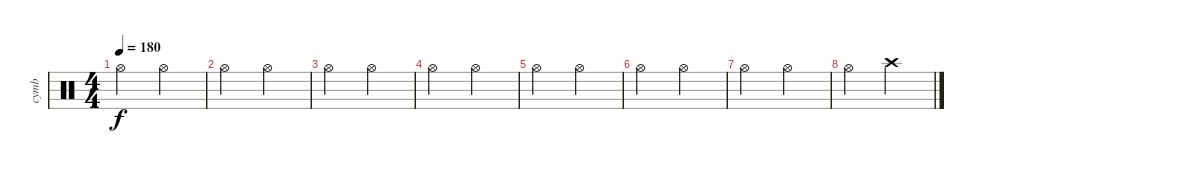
\track ("cymb" "cymb") {instrument percussion}
\staff {score}
\articulation defaults
\ts (4 4)
\tempo 180
\clef neutral
\ks c "Hi-Hat (open)".2{dy f} "Hi-Hat (open)".2
|
"Hi-Hat (open)".2 "Hi-Hat (open)".2 |
"Hi-Hat (open)".2 "Hi-Hat (open)".2 |
"Hi-Hat (open)".2 "Hi-Hat (open)".2 |
"Hi-Hat (open)".2 "Hi-Hat (open)".2 |
"Hi-Hat (open)".2 "Hi-Hat (open)".2 |
"Hi-Hat (open)".2 "Hi-Hat (open)".2 |
"Hi-Hat (open)".2 "Crash high (hit)".2
